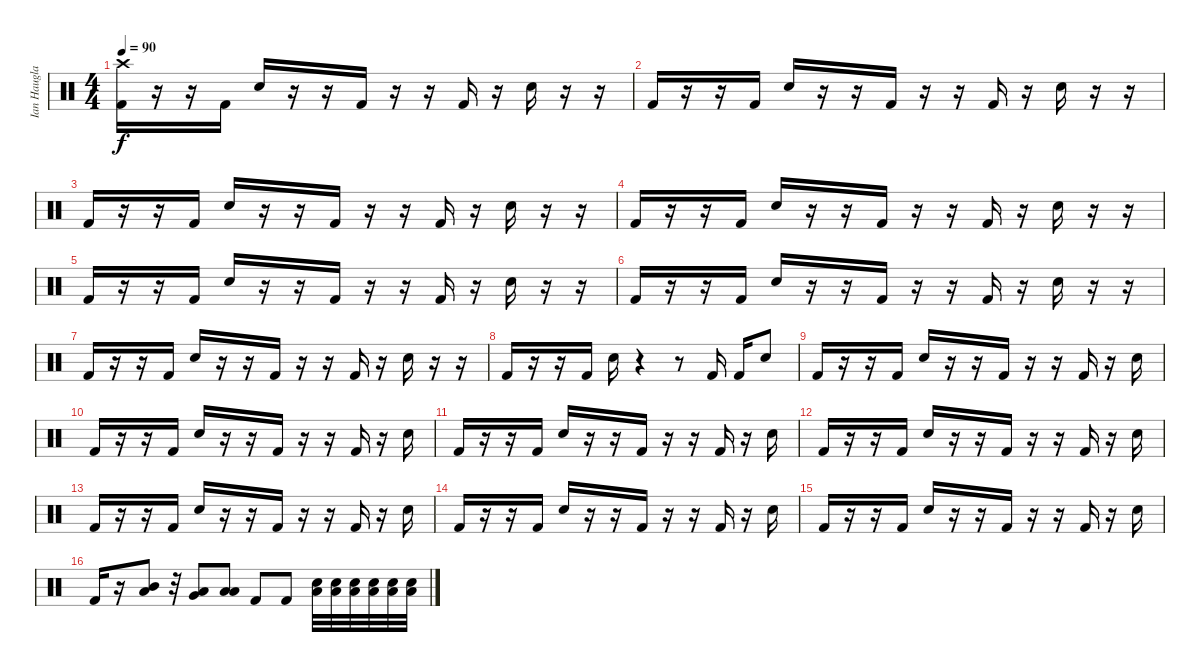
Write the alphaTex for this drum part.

\track ("Ian Haugland" "Ian Haugla") {instrument percussion}
\staff {score}
\articulation defaults
\ts (4 4)
\tempo 90
\clef neutral
\ks c
("Crash high (hit)" "Kick (hit) 2").16{dy f} r.16 r.16 "Kick (hit) 2".16 "Electric Snare (hit)".16 r.16 r.16 "Kick (hit) 2".16 r.16 r.16 "Kick (hit) 2".16 r.16 "Electric Snare (hit)".16 r.16 r.16 |
"Kick (hit) 2".16 r.16 r.16 "Kick (hit) 2".16 "Electric Snare (hit)".16 r.16 r.16 "Kick (hit) 2".16 r.16 r.16 "Kick (hit) 2".16 r.16 "Electric Snare (hit)".16 r.16 r.16 |
"Kick (hit) 2".16 r.16 r.16 "Kick (hit) 2".16 "Electric Snare (hit)".16 r.16 r.16 "Kick (hit) 2".16 r.16 r.16 "Kick (hit) 2".16 r.16 "Electric Snare (hit)".16 r.16 r.16 |
"Kick (hit) 2".16 r.16 r.16 "Kick (hit) 2".16 "Electric Snare (hit)".16 r.16 r.16 "Kick (hit) 2".16 r.16 r.16 "Kick (hit) 2".16 r.16 "Electric Snare (hit)".16 r.16 r.16 |
"Kick (hit) 2".16 r.16 r.16 "Kick (hit) 2".16 "Electric Snare (hit)".16 r.16 r.16 "Kick (hit) 2".16 r.16 r.16 "Kick (hit) 2".16 r.16 "Electric Snare (hit)".16 r.16 r.16 |
"Kick (hit) 2".16 r.16 r.16 "Kick (hit) 2".16 "Electric Snare (hit)".16 r.16 r.16 "Kick (hit) 2".16 r.16 r.16 "Kick (hit) 2".16 r.16 "Electric Snare (hit)".16 r.16 r.16 |
"Kick (hit) 2".16 r.16 r.16 "Kick (hit) 2".16 "Electric Snare (hit)".16 r.16 r.16 "Kick (hit) 2".16 r.16 r.16 "Kick (hit) 2".16 r.16 "Electric Snare (hit)".16 r.16 r.16 |
"Kick (hit) 2".16 r.16 r.16 "Kick (hit) 2".16 "Electric Snare (hit)".16 r.4 r.8 "Kick (hit) 2".16 "Kick (hit) 2".16 "Electric Snare (hit)".8 |
"Kick (hit) 2".16 r.16 r.16 "Kick (hit) 2".16 "Electric Snare (hit)".16 r.16 r.16 "Kick (hit) 2".16 r.16 r.16 "Kick (hit) 2".16 r.16 "Electric Snare (hit)".16 |
"Kick (hit) 2".16 r.16 r.16 "Kick (hit) 2".16 "Electric Snare (hit)".16 r.16 r.16 "Kick (hit) 2".16 r.16 r.16 "Kick (hit) 2".16 r.16 "Electric Snare (hit)".16 |
"Kick (hit) 2".16 r.16 r.16 "Kick (hit) 2".16 "Electric Snare (hit)".16 r.16 r.16 "Kick (hit) 2".16 r.16 r.16 "Kick (hit) 2".16 r.16 "Electric Snare (hit)".16 |
"Kick (hit) 2".16 r.16 r.16 "Kick (hit) 2".16 "Electric Snare (hit)".16 r.16 r.16 "Kick (hit) 2".16 r.16 r.16 "Kick (hit) 2".16 r.16 "Electric Snare (hit)".16 |
"Kick (hit) 2".16 r.16 r.16 "Kick (hit) 2".16 "Electric Snare (hit)".16 r.16 r.16 "Kick (hit) 2".16 r.16 r.16 "Kick (hit) 2".16 r.16 "Electric Snare (hit)".16 |
"Kick (hit) 2".16 r.16 r.16 "Kick (hit) 2".16 "Electric Snare (hit)".16 r.16 r.16 "Kick (hit) 2".16 r.16 r.16 "Kick (hit) 2".16 r.16 "Electric Snare (hit)".16 |
"Kick (hit) 2".16 r.16 r.16 "Kick (hit) 2".16 "Electric Snare (hit)".16 r.16 r.16 "Kick (hit) 2".16 r.16 r.16 "Kick (hit) 2".16 r.16 "Electric Snare (hit)".16 |
"Kick (hit) 2".16 r.16 ("Low Tom (hit)" "Mid Tom (hit)").8 r.32 ("Low Floor Tom (hit)" "Very Low Tom (hit)").8 ("Low Floor Tom (hit)" "Low Floor Tom (hit)").8 "Kick (hit) 2".8 "Kick (hit) 2".8 ("Electric Snare (hit)" "Low Floor Tom (hit)").32 ("Electric Snare (hit)" "Low Floor Tom (hit)").32 ("Electric Snare (hit)" "Low Floor Tom (hit)").32 ("Electric Snare (hit)" "Low Floor Tom (hit)").32 ("Electric Snare (hit)" "Low Floor Tom (hit)").32 ("Electric Snare (hit)" "Low Floor Tom (hit)").32
